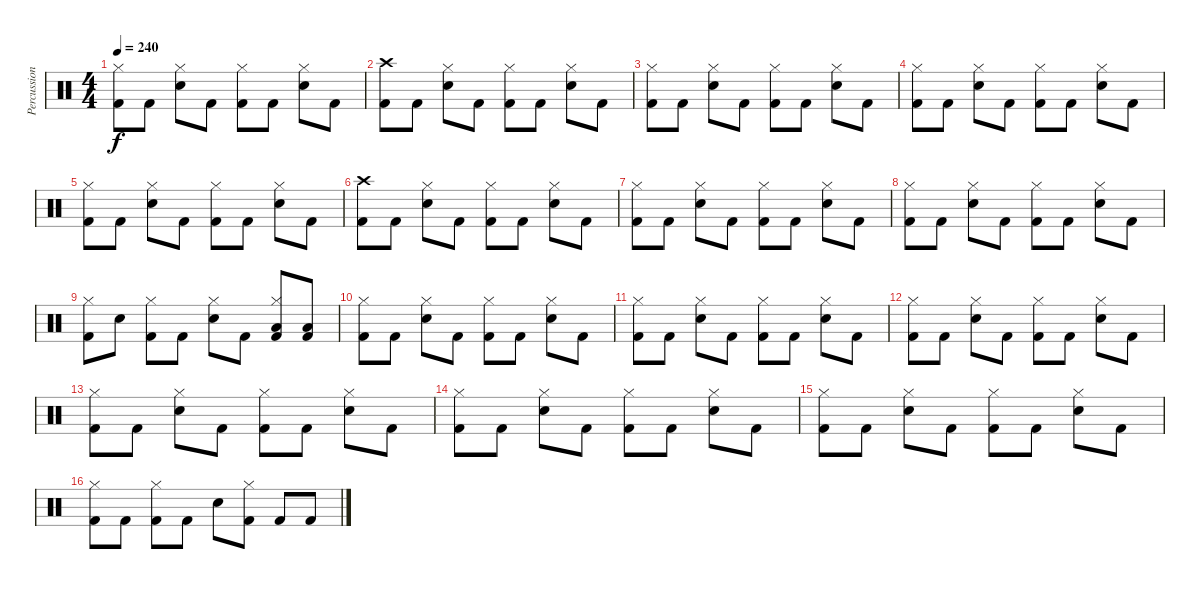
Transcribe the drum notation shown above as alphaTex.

\track ("Percussion" "Percussion") {instrument percussion}
\staff {score}
\articulation defaults
\ts (4 4)
\tempo 240
\clef neutral
\ks c
("Kick (hit) 2" "Hi-Hat (closed)").8{dy f} "Kick (hit) 2".8 ("Snare (hit) 2" "Hi-Hat (closed)").8 "Kick (hit) 2".8 ("Kick (hit) 2" "Hi-Hat (closed)").8 "Kick (hit) 2".8 ("Snare (hit) 2" "Hi-Hat (closed)").8 "Kick (hit) 2".8 |
("Kick (hit) 2" "Crash high (hit)").8 "Kick (hit) 2".8 ("Snare (hit) 2" "Hi-Hat (closed)").8 "Kick (hit) 2".8 ("Kick (hit) 2" "Hi-Hat (closed)").8 "Kick (hit) 2".8 ("Snare (hit) 2" "Hi-Hat (closed)").8 "Kick (hit) 2".8 |
("Kick (hit) 2" "Hi-Hat (closed)").8 "Kick (hit) 2".8 ("Snare (hit) 2" "Hi-Hat (closed)").8 "Kick (hit) 2".8 ("Kick (hit) 2" "Hi-Hat (closed)").8 "Kick (hit) 2".8 ("Snare (hit) 2" "Hi-Hat (closed)").8 "Kick (hit) 2".8 |
("Kick (hit) 2" "Hi-Hat (closed)").8 "Kick (hit) 2".8 ("Snare (hit) 2" "Hi-Hat (closed)").8 "Kick (hit) 2".8 ("Kick (hit) 2" "Hi-Hat (closed)").8 "Kick (hit) 2".8 ("Snare (hit) 2" "Hi-Hat (closed)").8 "Kick (hit) 2".8 |
("Kick (hit) 2" "Hi-Hat (closed)").8 "Kick (hit) 2".8 ("Snare (hit) 2" "Hi-Hat (closed)").8 "Kick (hit) 2".8 ("Kick (hit) 2" "Hi-Hat (closed)").8 "Kick (hit) 2".8 ("Snare (hit) 2" "Hi-Hat (closed)").8 "Kick (hit) 2".8 |
("Kick (hit) 2" "Crash high (hit)").8 "Kick (hit) 2".8 ("Snare (hit) 2" "Hi-Hat (closed)").8 "Kick (hit) 2".8 ("Kick (hit) 2" "Hi-Hat (closed)").8 "Kick (hit) 2".8 ("Snare (hit) 2" "Hi-Hat (closed)").8 "Kick (hit) 2".8 |
("Kick (hit) 2" "Hi-Hat (closed)").8 "Kick (hit) 2".8 ("Snare (hit) 2" "Hi-Hat (closed)").8 "Kick (hit) 2".8 ("Kick (hit) 2" "Hi-Hat (closed)").8 "Kick (hit) 2".8 ("Snare (hit) 2" "Hi-Hat (closed)").8 "Kick (hit) 2".8 |
("Kick (hit) 2" "Hi-Hat (closed)").8 "Kick (hit) 2".8 ("Snare (hit) 2" "Hi-Hat (closed)").8 "Kick (hit) 2".8 ("Kick (hit) 2" "Hi-Hat (closed)").8 "Kick (hit) 2".8 ("Snare (hit) 2" "Hi-Hat (closed)").8 "Kick (hit) 2".8 |
("Kick (hit) 2" "Hi-Hat (closed)").8 "Snare (hit) 2".8 ("Kick (hit) 2" "Hi-Hat (closed)").8 "Kick (hit) 2".8 ("Snare (hit) 2" "Hi-Hat (closed)").8 "Kick (hit) 2".8 ("Kick (hit) 2" "Low Tom (hit)" "Hi-Hat (closed)").8 ("Kick (hit) 2" "Low Tom (hit)").8 |
("Kick (hit) 2" "Hi-Hat (closed)").8 "Kick (hit) 2".8 ("Snare (hit) 2" "Hi-Hat (closed)").8 "Kick (hit) 2".8 ("Kick (hit) 2" "Hi-Hat (closed)").8 "Kick (hit) 2".8 ("Snare (hit) 2" "Hi-Hat (closed)").8 "Kick (hit) 2".8 |
("Kick (hit) 2" "Hi-Hat (closed)").8 "Kick (hit) 2".8 ("Snare (hit) 2" "Hi-Hat (closed)").8 "Kick (hit) 2".8 ("Kick (hit) 2" "Hi-Hat (closed)").8 "Kick (hit) 2".8 ("Snare (hit) 2" "Hi-Hat (closed)").8 "Kick (hit) 2".8 |
("Kick (hit) 2" "Hi-Hat (closed)").8 "Kick (hit) 2".8 ("Snare (hit) 2" "Hi-Hat (closed)").8 "Kick (hit) 2".8 ("Kick (hit) 2" "Hi-Hat (closed)").8 "Kick (hit) 2".8 ("Snare (hit) 2" "Hi-Hat (closed)").8 "Kick (hit) 2".8 |
("Kick (hit) 2" "Hi-Hat (closed)").8 "Kick (hit) 2".8 ("Snare (hit) 2" "Hi-Hat (closed)").8 "Kick (hit) 2".8 ("Kick (hit) 2" "Hi-Hat (closed)").8 "Kick (hit) 2".8 ("Snare (hit) 2" "Hi-Hat (closed)").8 "Kick (hit) 2".8 |
("Kick (hit) 2" "Hi-Hat (closed)").8 "Kick (hit) 2".8 ("Snare (hit) 2" "Hi-Hat (closed)").8 "Kick (hit) 2".8 ("Kick (hit) 2" "Hi-Hat (closed)").8 "Kick (hit) 2".8 ("Snare (hit) 2" "Hi-Hat (closed)").8 "Kick (hit) 2".8 |
("Kick (hit) 2" "Hi-Hat (closed)").8 "Kick (hit) 2".8 ("Snare (hit) 2" "Hi-Hat (closed)").8 "Kick (hit) 2".8 ("Kick (hit) 2" "Hi-Hat (closed)").8 "Kick (hit) 2".8 ("Snare (hit) 2" "Hi-Hat (closed)").8 "Kick (hit) 2".8 |
("Kick (hit) 2" "Hi-Hat (closed)").8 "Kick (hit) 2".8 ("Kick (hit) 2" "Hi-Hat (closed)").8 "Kick (hit) 2".8 "Snare (hit) 2".8 ("Kick (hit) 2" "Hi-Hat (closed)").8 "Kick (hit) 2".8 "Kick (hit) 2".8
